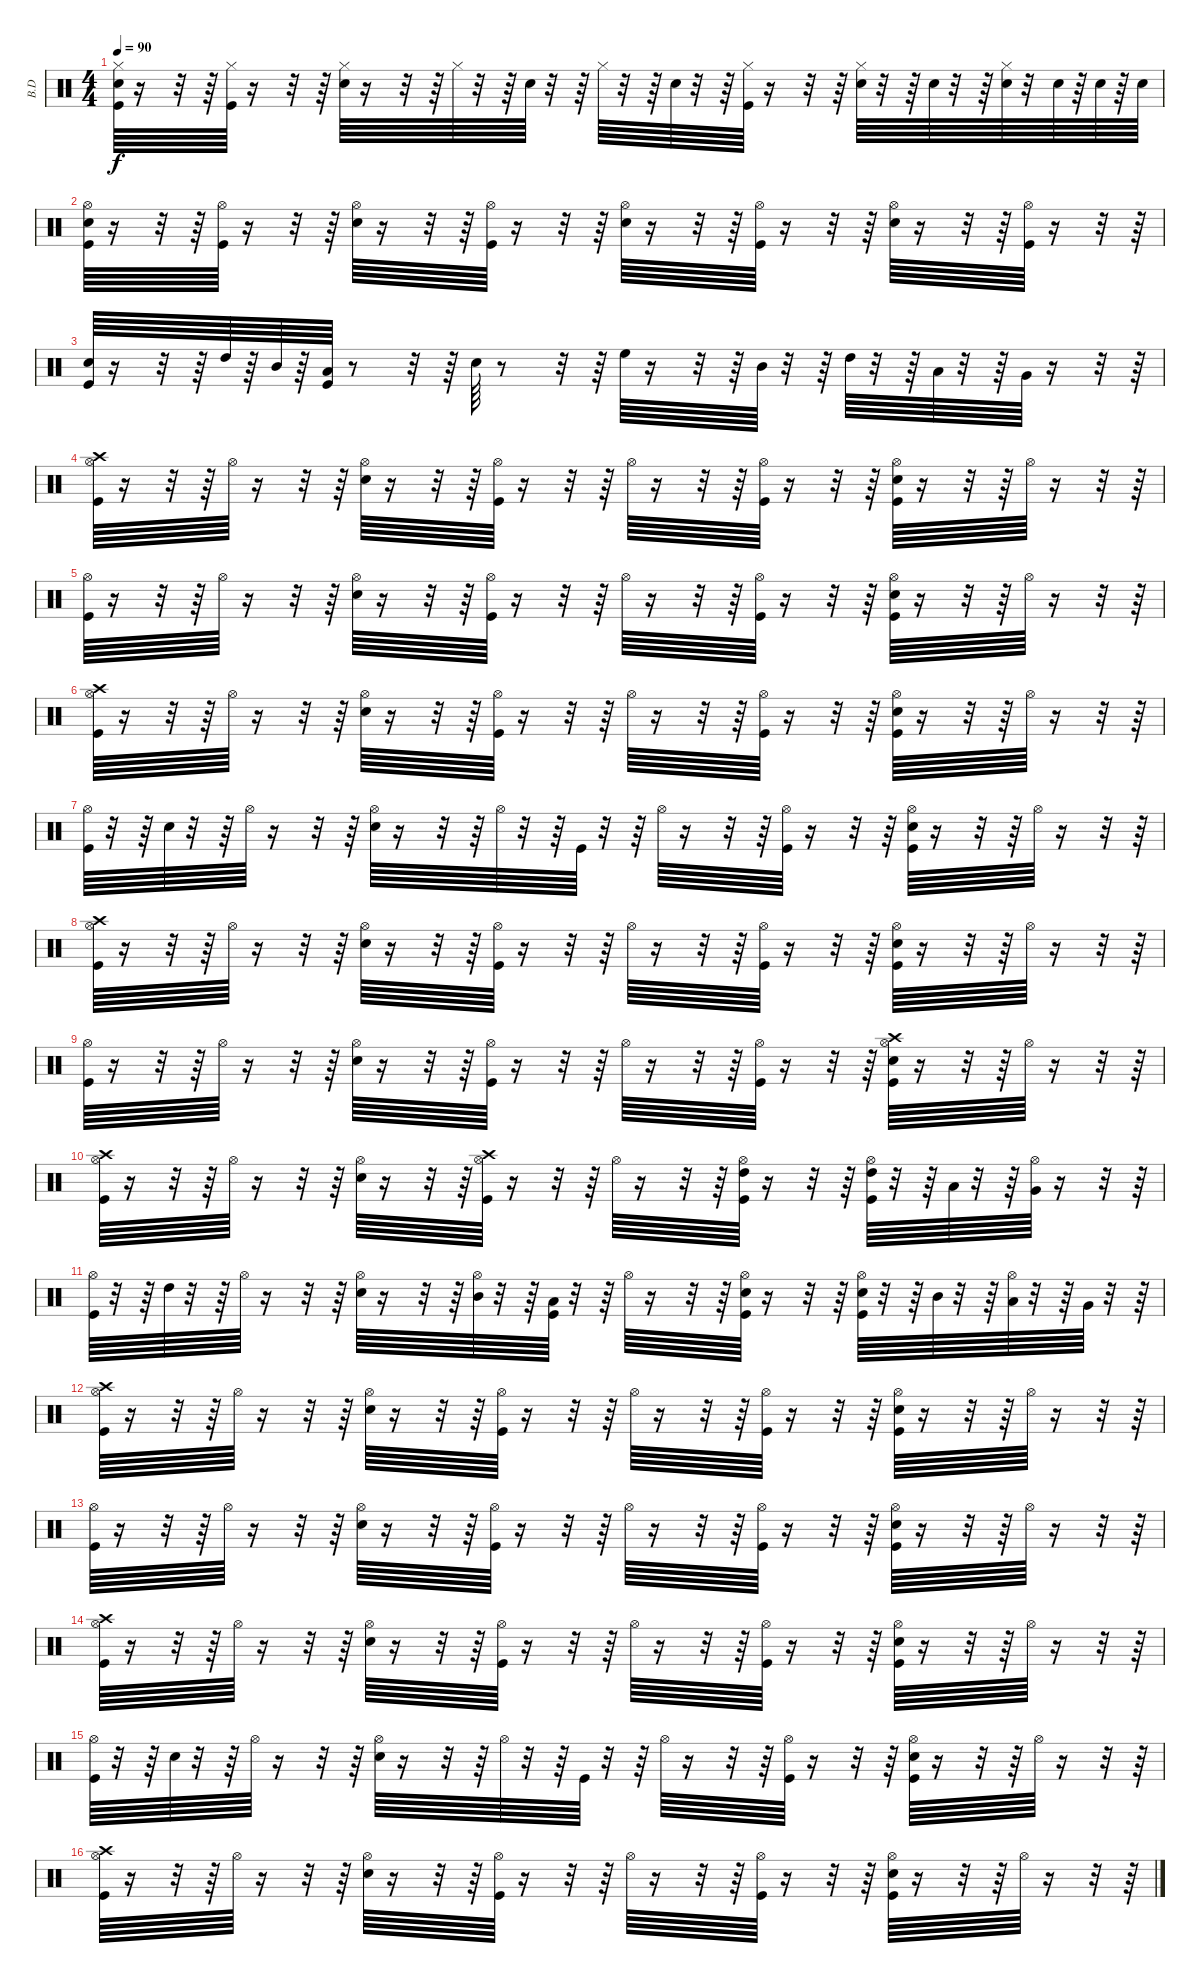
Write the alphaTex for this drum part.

\track ("B.D" "B.D") {instrument percussion}
\staff {score}
\articulation defaults
\ts (4 4)
\tempo 90
\clef neutral
\ks c
("Snare (hit)" "Kick (hit)" "Hi-Hat (closed)").64{dy f} r.16 r.32 r.64 ("Kick (hit)" "Hi-Hat (closed)").64 r.16 r.32 r.64 ("Electric Snare (hit)" "Hi-Hat (closed)").64 r.16 r.32 r.64 "Hi-Hat (closed)".64 r.32 r.64 "Electric Snare (hit)".64 r.32 r.64 "Hi-Hat (closed)".64 r.32 r.64 "Electric Snare (hit)".64 r.32 r.64 ("Kick (hit)" "Hi-Hat (closed)").64 r.16 r.32 r.64 ("Electric Snare (hit)" "Hi-Hat (closed)").64 r.32 r.64 "Electric Snare (hit)".64 r.32 r.64 ("Electric Snare (hit)" "Hi-Hat (closed)").64 r.32 "Electric Snare (hit)".64 r.64 "Electric Snare (hit)".64 r.64 "Electric Snare (hit)".64 |
("Snare (hit)" "Kick (hit)" "Hi-Hat (open)").64 r.16 r.32 r.64 ("Kick (hit)" "Hi-Hat (open)").64 r.16 r.32 r.64 ("Electric Snare (hit)" "Hi-Hat (open)").64 r.16 r.32 r.64 ("Kick (hit)" "Hi-Hat (open)").64 r.16 r.32 r.64 ("Electric Snare (hit)" "Hi-Hat (open)").64 r.16 r.32 r.64 ("Kick (hit)" "Hi-Hat (open)").64 r.16 r.32 r.64 ("Electric Snare (hit)" "Hi-Hat (open)").64 r.16 r.32 r.64 ("Kick (hit)" "Hi-Hat (open)").64 r.16 r.32 r.64 |
("Electric Snare (hit)" "Kick (hit)").64 r.16 r.32 r.64 "High Tom (hit)".64 r.64 "Mid Tom (hit)".64 r.64 ("Kick (hit)" "Low Tom (hit)").64 r.8 r.32 r.64 "Electric Snare (hit)".64 r.8 r.32 r.64 "High Floor Tom (hit)".64 r.16 r.32 r.64 "Mid Tom (hit)".64 r.32 r.64 "High Tom (hit)".64 r.32 r.64 "Low Tom (hit)".64 r.32 r.64 "Very Low Tom (hit)".64 r.16 r.32 r.64 |
("Kick (hit)" "Hi-Hat (open)" "Crash high (hit)").64 r.16 r.32 r.64 "Hi-Hat (open)".64 r.16 r.32 r.64 ("Electric Snare (hit)" "Hi-Hat (open)").64 r.16 r.32 r.64 ("Kick (hit)" "Hi-Hat (open)").64 r.16 r.32 r.64 "Hi-Hat (open)".64 r.16 r.32 r.64 ("Kick (hit)" "Hi-Hat (open)").64 r.16 r.32 r.64 ("Kick (hit)" "Electric Snare (hit)" "Hi-Hat (open)").64 r.16 r.32 r.64 "Hi-Hat (open)".64 r.16 r.32 r.64 |
("Kick (hit)" "Hi-Hat (open)").64 r.16 r.32 r.64 "Hi-Hat (open)".64 r.16 r.32 r.64 ("Electric Snare (hit)" "Hi-Hat (open)").64 r.16 r.32 r.64 ("Kick (hit)" "Hi-Hat (open)").64 r.16 r.32 r.64 "Hi-Hat (open)".64 r.16 r.32 r.64 ("Kick (hit)" "Hi-Hat (open)").64 r.16 r.32 r.64 ("Kick (hit)" "Electric Snare (hit)" "Hi-Hat (open)").64 r.16 r.32 r.64 "Hi-Hat (open)".64 r.16 r.32 r.64 |
("Kick (hit)" "Hi-Hat (open)" "Crash high (hit)").64 r.16 r.32 r.64 "Hi-Hat (open)".64 r.16 r.32 r.64 ("Electric Snare (hit)" "Hi-Hat (open)").64 r.16 r.32 r.64 ("Kick (hit)" "Hi-Hat (open)").64 r.16 r.32 r.64 "Hi-Hat (open)".64 r.16 r.32 r.64 ("Kick (hit)" "Hi-Hat (open)").64 r.16 r.32 r.64 ("Kick (hit)" "Electric Snare (hit)" "Hi-Hat (open)").64 r.16 r.32 r.64 "Hi-Hat (open)".64 r.16 r.32 r.64 |
("Kick (hit)" "Hi-Hat (open)").64 r.32 r.64 "Electric Snare (hit)".64 r.32 r.64 "Hi-Hat (open)".64 r.16 r.32 r.64 ("Electric Snare (hit)" "Hi-Hat (open)").64 r.16 r.32 r.64 "Hi-Hat (open)".64 r.32 r.64 "Kick (hit)".64 r.32 r.64 "Hi-Hat (open)".64 r.16 r.32 r.64 ("Kick (hit)" "Hi-Hat (open)").64 r.16 r.32 r.64 ("Kick (hit)" "Electric Snare (hit)" "Hi-Hat (open)").64 r.16 r.32 r.64 "Hi-Hat (open)".64 r.16 r.32 r.64 |
("Kick (hit)" "Hi-Hat (open)" "Crash high (hit)").64 r.16 r.32 r.64 "Hi-Hat (open)".64 r.16 r.32 r.64 ("Electric Snare (hit)" "Hi-Hat (open)").64 r.16 r.32 r.64 ("Kick (hit)" "Hi-Hat (open)").64 r.16 r.32 r.64 "Hi-Hat (open)".64 r.16 r.32 r.64 ("Kick (hit)" "Hi-Hat (open)").64 r.16 r.32 r.64 ("Kick (hit)" "Electric Snare (hit)" "Hi-Hat (open)").64 r.16 r.32 r.64 "Hi-Hat (open)".64 r.16 r.32 r.64 |
("Kick (hit)" "Hi-Hat (open)").64 r.16 r.32 r.64 "Hi-Hat (open)".64 r.16 r.32 r.64 ("Electric Snare (hit)" "Hi-Hat (open)").64 r.16 r.32 r.64 ("Kick (hit)" "Hi-Hat (open)").64 r.16 r.32 r.64 "Hi-Hat (open)".64 r.16 r.32 r.64 ("Kick (hit)" "Hi-Hat (open)").64 r.16 r.32 r.64 ("Kick (hit)" "Electric Snare (hit)" "Hi-Hat (open)" "Crash high (hit)").64 r.16 r.32 r.64 "Hi-Hat (open)".64 r.16 r.32 r.64 |
("Kick (hit)" "Hi-Hat (open)" "Crash high (hit)").64 r.16 r.32 r.64 "Hi-Hat (open)".64 r.16 r.32 r.64 ("Electric Snare (hit)" "Hi-Hat (open)").64 r.16 r.32 r.64 ("Kick (hit)" "Hi-Hat (open)" "Crash high (hit)").64 r.16 r.32 r.64 "Hi-Hat (open)".64 r.16 r.32 r.64 ("Kick (hit)" "Hi-Hat (open)" "High Tom (hit)").64 r.16 r.32 r.64 ("Kick (hit)" "Hi-Hat (open)" "High Tom (hit)").64 r.32 r.64 "Low Tom (hit)".64 r.32 r.64 ("Hi-Hat (open)" "Very Low Tom (hit)").64 r.16 r.32 r.64 |
("Kick (hit)" "Hi-Hat (open)").64 r.32 r.64 "High Tom (hit)".64 r.32 r.64 "Hi-Hat (open)".64 r.16 r.32 r.64 ("Electric Snare (hit)" "Hi-Hat (open)").64 r.16 r.32 r.64 ("Hi-Hat (open)" "Mid Tom (hit)").64 r.32 r.64 ("Kick (hit)" "Low Tom (hit)").64 r.32 r.64 "Hi-Hat (open)".64 r.16 r.32 r.64 ("Kick (hit)" "Electric Snare (hit)" "Hi-Hat (open)").64 r.16 r.32 r.64 ("Kick (hit)" "Electric Snare (hit)" "Hi-Hat (open)").64 r.32 r.64 "Mid Tom (hit)".64 r.32 r.64 ("Hi-Hat (open)" "Low Tom (hit)").64 r.32 r.64 "Very Low Tom (hit)".64 r.32 r.64 |
("Kick (hit)" "Hi-Hat (open)" "Crash high (hit)").64 r.16 r.32 r.64 "Hi-Hat (open)".64 r.16 r.32 r.64 ("Electric Snare (hit)" "Hi-Hat (open)").64 r.16 r.32 r.64 ("Kick (hit)" "Hi-Hat (open)").64 r.16 r.32 r.64 "Hi-Hat (open)".64 r.16 r.32 r.64 ("Kick (hit)" "Hi-Hat (open)").64 r.16 r.32 r.64 ("Kick (hit)" "Electric Snare (hit)" "Hi-Hat (open)").64 r.16 r.32 r.64 "Hi-Hat (open)".64 r.16 r.32 r.64 |
("Kick (hit)" "Hi-Hat (open)").64 r.16 r.32 r.64 "Hi-Hat (open)".64 r.16 r.32 r.64 ("Electric Snare (hit)" "Hi-Hat (open)").64 r.16 r.32 r.64 ("Kick (hit)" "Hi-Hat (open)").64 r.16 r.32 r.64 "Hi-Hat (open)".64 r.16 r.32 r.64 ("Kick (hit)" "Hi-Hat (open)").64 r.16 r.32 r.64 ("Kick (hit)" "Electric Snare (hit)" "Hi-Hat (open)").64 r.16 r.32 r.64 "Hi-Hat (open)".64 r.16 r.32 r.64 |
("Kick (hit)" "Hi-Hat (open)" "Crash high (hit)").64 r.16 r.32 r.64 "Hi-Hat (open)".64 r.16 r.32 r.64 ("Electric Snare (hit)" "Hi-Hat (open)").64 r.16 r.32 r.64 ("Kick (hit)" "Hi-Hat (open)").64 r.16 r.32 r.64 "Hi-Hat (open)".64 r.16 r.32 r.64 ("Kick (hit)" "Hi-Hat (open)").64 r.16 r.32 r.64 ("Kick (hit)" "Electric Snare (hit)" "Hi-Hat (open)").64 r.16 r.32 r.64 "Hi-Hat (open)".64 r.16 r.32 r.64 |
("Kick (hit)" "Hi-Hat (open)").64 r.32 r.64 "Electric Snare (hit)".64 r.32 r.64 "Hi-Hat (open)".64 r.16 r.32 r.64 ("Electric Snare (hit)" "Hi-Hat (open)").64 r.16 r.32 r.64 "Hi-Hat (open)".64 r.32 r.64 "Kick (hit)".64 r.32 r.64 "Hi-Hat (open)".64 r.16 r.32 r.64 ("Kick (hit)" "Hi-Hat (open)").64 r.16 r.32 r.64 ("Kick (hit)" "Electric Snare (hit)" "Hi-Hat (open)").64 r.16 r.32 r.64 "Hi-Hat (open)".64 r.16 r.32 r.64 |
("Kick (hit)" "Hi-Hat (open)" "Crash high (hit)").64 r.16 r.32 r.64 "Hi-Hat (open)".64 r.16 r.32 r.64 ("Electric Snare (hit)" "Hi-Hat (open)").64 r.16 r.32 r.64 ("Kick (hit)" "Hi-Hat (open)").64 r.16 r.32 r.64 "Hi-Hat (open)".64 r.16 r.32 r.64 ("Kick (hit)" "Hi-Hat (open)").64 r.16 r.32 r.64 ("Kick (hit)" "Electric Snare (hit)" "Hi-Hat (open)").64 r.16 r.32 r.64 "Hi-Hat (open)".64 r.16 r.32 r.64
